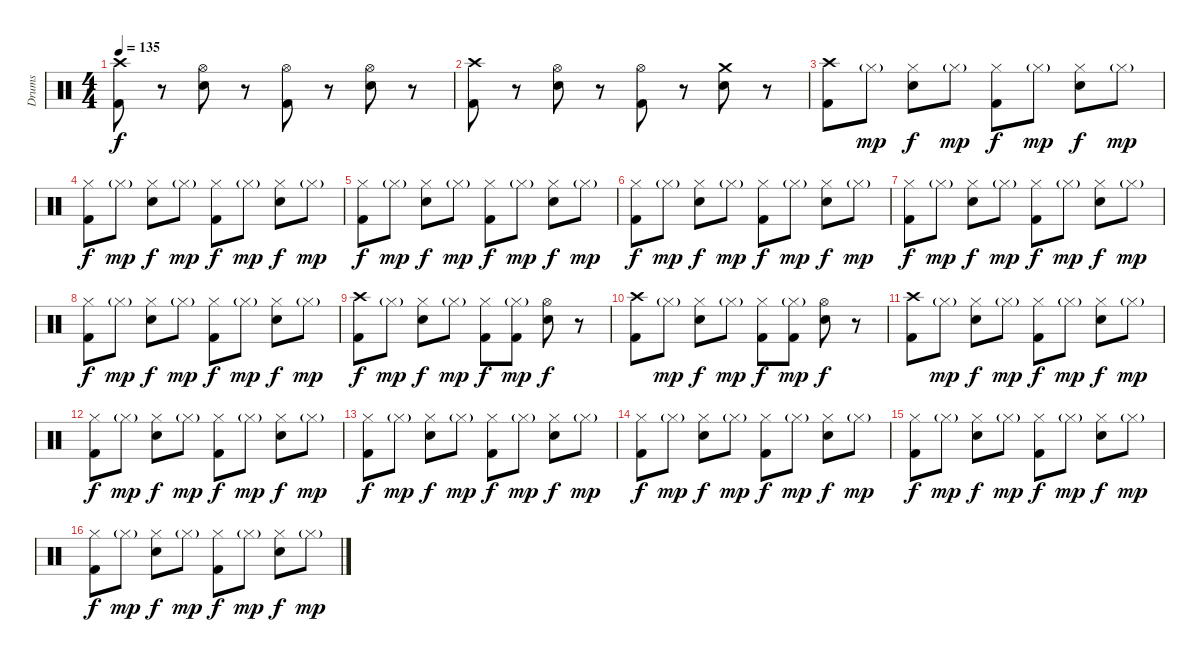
\track ("Drums" "Drums") {instrument percussion}
\staff {score}
\articulation defaults
\ts (4 4)
\tempo 135
\clef neutral
\ks c
("Crash high (hit)" "Kick (hit) 2").8{dy f} r.8 ("Hi-Hat (open)" "Electric Snare (hit)").8 r.8 ("Hi-Hat (open)" "Kick (hit) 2").8 r.8 ("Hi-Hat (open)" "Electric Snare (hit)").8 r.8 |
("Crash high (hit)" "Kick (hit) 2").8 r.8 ("Hi-Hat (open)" "Electric Snare (hit)").8 r.8 ("Hi-Hat (open)" "Kick (hit) 2").8 r.8 ("Crash medium (hit)" "Electric Snare (hit)").8 r.8 |
("Crash high (hit)" "Kick (hit) 2").8 "Hi-Hat (closed)"{g}.8{dy mp} ("Hi-Hat (closed)" "Electric Snare (hit)").8{dy f} "Hi-Hat (closed)"{g}.8{dy mp} ("Hi-Hat (closed)" "Kick (hit) 2").8{dy f} "Hi-Hat (closed)"{g}.8{dy mp} ("Hi-Hat (closed)" "Electric Snare (hit)").8{dy f} "Hi-Hat (closed)"{g}.8{dy mp} |
("Hi-Hat (closed)" "Kick (hit) 2").8{dy f} "Hi-Hat (closed)"{g}.8{dy mp} ("Hi-Hat (closed)" "Electric Snare (hit)").8{dy f} "Hi-Hat (closed)"{g}.8{dy mp} ("Hi-Hat (closed)" "Kick (hit) 2").8{dy f} "Hi-Hat (closed)"{g}.8{dy mp} ("Hi-Hat (closed)" "Electric Snare (hit)").8{dy f} "Hi-Hat (closed)"{g}.8{dy mp} |
("Hi-Hat (closed)" "Kick (hit) 2").8{dy f} "Hi-Hat (closed)"{g}.8{dy mp} ("Hi-Hat (closed)" "Electric Snare (hit)").8{dy f} "Hi-Hat (closed)"{g}.8{dy mp} ("Hi-Hat (closed)" "Kick (hit) 2").8{dy f} "Hi-Hat (closed)"{g}.8{dy mp} ("Hi-Hat (closed)" "Electric Snare (hit)").8{dy f} "Hi-Hat (closed)"{g}.8{dy mp} |
("Hi-Hat (closed)" "Kick (hit) 2").8{dy f} "Hi-Hat (closed)"{g}.8{dy mp} ("Hi-Hat (closed)" "Electric Snare (hit)").8{dy f} "Hi-Hat (closed)"{g}.8{dy mp} ("Hi-Hat (closed)" "Kick (hit) 2").8{dy f} "Hi-Hat (closed)"{g}.8{dy mp} ("Hi-Hat (closed)" "Electric Snare (hit)").8{dy f} "Hi-Hat (closed)"{g}.8{dy mp} |
("Hi-Hat (closed)" "Kick (hit) 2").8{dy f} "Hi-Hat (closed)"{g}.8{dy mp} ("Hi-Hat (closed)" "Electric Snare (hit)").8{dy f} "Hi-Hat (closed)"{g}.8{dy mp} ("Hi-Hat (closed)" "Kick (hit) 2").8{dy f} "Hi-Hat (closed)"{g}.8{dy mp} ("Hi-Hat (closed)" "Electric Snare (hit)").8{dy f} "Hi-Hat (closed)"{g}.8{dy mp} |
("Hi-Hat (closed)" "Kick (hit) 2").8{dy f} "Hi-Hat (closed)"{g}.8{dy mp} ("Hi-Hat (closed)" "Electric Snare (hit)").8{dy f} "Hi-Hat (closed)"{g}.8{dy mp} ("Hi-Hat (closed)" "Kick (hit) 2").8{dy f} "Hi-Hat (closed)"{g}.8{dy mp} ("Hi-Hat (closed)" "Electric Snare (hit)").8{dy f} "Hi-Hat (closed)"{g}.8{dy mp} |
("Crash high (hit)" "Kick (hit) 2").8{dy f} "Hi-Hat (closed)"{g}.8{dy mp} ("Hi-Hat (closed)" "Electric Snare (hit)").8{dy f} "Hi-Hat (closed)"{g}.8{dy mp} ("Hi-Hat (closed)" "Kick (hit) 2").8{dy f} ("Hi-Hat (closed)"{g} "Kick (hit) 2").8{dy mp} ("Hi-Hat (open)" "Electric Snare (hit)").8{dy f} r.8 |
("Crash high (hit)" "Kick (hit) 2").8 "Hi-Hat (closed)"{g}.8{dy mp} ("Hi-Hat (closed)" "Electric Snare (hit)").8{dy f} "Hi-Hat (closed)"{g}.8{dy mp} ("Hi-Hat (closed)" "Kick (hit) 2").8{dy f} ("Hi-Hat (closed)"{g} "Kick (hit) 2").8{dy mp} ("Hi-Hat (open)" "Electric Snare (hit)").8{dy f} r.8 |
("Crash high (hit)" "Kick (hit) 2").8 "Hi-Hat (closed)"{g}.8{dy mp} ("Hi-Hat (closed)" "Electric Snare (hit)").8{dy f} "Hi-Hat (closed)"{g}.8{dy mp} ("Hi-Hat (closed)" "Kick (hit) 2").8{dy f} "Hi-Hat (closed)"{g}.8{dy mp} ("Hi-Hat (closed)" "Electric Snare (hit)").8{dy f} "Hi-Hat (closed)"{g}.8{dy mp} |
("Hi-Hat (closed)" "Kick (hit) 2").8{dy f} "Hi-Hat (closed)"{g}.8{dy mp} ("Hi-Hat (closed)" "Electric Snare (hit)").8{dy f} "Hi-Hat (closed)"{g}.8{dy mp} ("Hi-Hat (closed)" "Kick (hit) 2").8{dy f} "Hi-Hat (closed)"{g}.8{dy mp} ("Hi-Hat (closed)" "Electric Snare (hit)").8{dy f} "Hi-Hat (closed)"{g}.8{dy mp} |
("Hi-Hat (closed)" "Kick (hit) 2").8{dy f} "Hi-Hat (closed)"{g}.8{dy mp} ("Hi-Hat (closed)" "Electric Snare (hit)").8{dy f} "Hi-Hat (closed)"{g}.8{dy mp} ("Hi-Hat (closed)" "Kick (hit) 2").8{dy f} "Hi-Hat (closed)"{g}.8{dy mp} ("Hi-Hat (closed)" "Electric Snare (hit)").8{dy f} "Hi-Hat (closed)"{g}.8{dy mp} |
("Hi-Hat (closed)" "Kick (hit) 2").8{dy f} "Hi-Hat (closed)"{g}.8{dy mp} ("Hi-Hat (closed)" "Electric Snare (hit)").8{dy f} "Hi-Hat (closed)"{g}.8{dy mp} ("Hi-Hat (closed)" "Kick (hit) 2").8{dy f} "Hi-Hat (closed)"{g}.8{dy mp} ("Hi-Hat (closed)" "Electric Snare (hit)").8{dy f} "Hi-Hat (closed)"{g}.8{dy mp} |
("Hi-Hat (closed)" "Kick (hit) 2").8{dy f} "Hi-Hat (closed)"{g}.8{dy mp} ("Hi-Hat (closed)" "Electric Snare (hit)").8{dy f} "Hi-Hat (closed)"{g}.8{dy mp} ("Hi-Hat (closed)" "Kick (hit) 2").8{dy f} "Hi-Hat (closed)"{g}.8{dy mp} ("Hi-Hat (closed)" "Electric Snare (hit)").8{dy f} "Hi-Hat (closed)"{g}.8{dy mp} |
("Hi-Hat (closed)" "Kick (hit) 2").8{dy f} "Hi-Hat (closed)"{g}.8{dy mp} ("Hi-Hat (closed)" "Electric Snare (hit)").8{dy f} "Hi-Hat (closed)"{g}.8{dy mp} ("Hi-Hat (closed)" "Kick (hit) 2").8{dy f} "Hi-Hat (closed)"{g}.8{dy mp} ("Hi-Hat (closed)" "Electric Snare (hit)").8{dy f} "Hi-Hat (closed)"{g}.8{dy mp}
